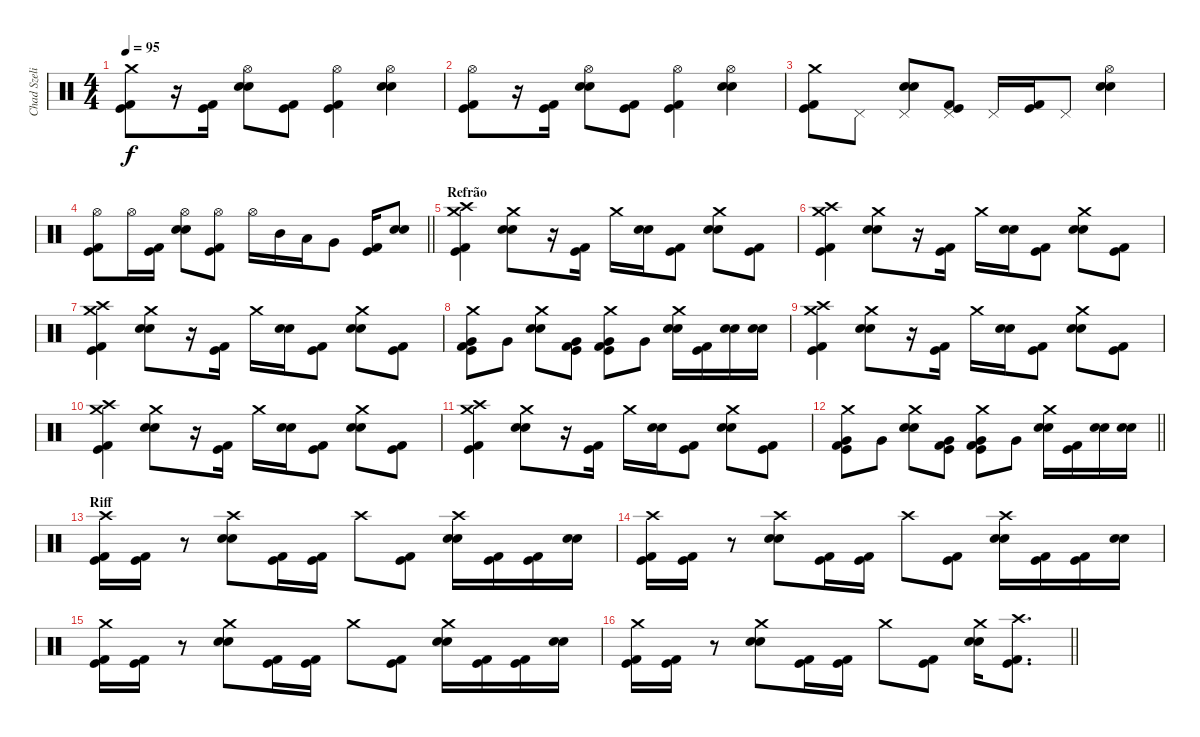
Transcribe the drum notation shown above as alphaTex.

\track ("Chad Szeliga" "Chad Szeli") {instrument percussion}
\staff {score}
\articulation defaults
\ts (4 4)
\tempo 95
\clef neutral
\ks c
("Crash medium (hit)" "Kick (hit) 2" "Kick (hit)").8{dy f} r.16 ("Kick (hit) 2" "Kick (hit)").16{beam Down} ("Snare (hit) 2" "Snare (hit) 2" "Hi-Hat (open)").8 ("Kick (hit) 2" "Kick (hit)").8 ("Kick (hit) 2" "Kick (hit)" "Hi-Hat (open)").4 ("Snare (hit) 2" "Snare (hit) 2" "Hi-Hat (open)").4 |
("Kick (hit) 2" "Kick (hit)" "Hi-Hat (open)").8 r.16 ("Kick (hit) 2" "Kick (hit)").16{beam Down} ("Snare (hit) 2" "Snare (hit) 2" "Hi-Hat (open)").8 ("Kick (hit) 2" "Kick (hit)").8 ("Kick (hit) 2" "Kick (hit)" "Hi-Hat (open)").4 ("Snare (hit) 2" "Snare (hit) 2" "Hi-Hat (open)").4 |
("Crash medium (hit)" "Kick (hit) 2" "Kick (hit)").8 "Pedal Hi-Hat (hit)".8 ("Snare (hit) 2" "Snare (hit) 2" "Pedal Hi-Hat (hit)").8 ("Kick (hit) 2" "Kick (hit)" "Pedal Hi-Hat (hit)").8 "Pedal Hi-Hat (hit)".16 ("Kick (hit) 2" "Kick (hit)").16 "Pedal Hi-Hat (hit)".8 ("Snare (hit) 2" "Snare (hit) 2" "Hi-Hat (open)").4 |
\barLineRight lightlight
("Kick (hit) 2" "Kick (hit)" "Hi-Hat (open)").8 "Hi-Hat (open)".16 ("Kick (hit) 2" "Kick (hit)").16 ("Snare (hit) 2" "Snare (hit) 2" "Hi-Hat (open)").8 ("Kick (hit) 2" "Kick (hit)" "Hi-Hat (open)").8 "Hi-Hat (open)".16 "Mid Tom (hit)".16 "Low Tom (hit)".16 "Very Low Tom (hit)".8 ("Kick (hit) 2" "Kick (hit)").16 ("Snare (hit) 2" "Snare (hit) 2").8 |
\section ("" "Refrão")
("Crash high (hit)" "Kick (hit) 2" "Kick (hit)" "Crash medium (hit)").4 ("Crash medium (hit)" "Snare (hit) 2" "Snare (hit) 2").8 r.16 ("Kick (hit) 2" "Kick (hit)").16{beam Down} "Crash medium (hit)".16 ("Snare (hit) 2" "Snare (hit) 2").16 ("Kick (hit) 2" "Kick (hit)").8 ("Crash medium (hit)" "Snare (hit) 2" "Snare (hit) 2").8 ("Kick (hit) 2" "Kick (hit)").8 |
("Crash high (hit)" "Kick (hit) 2" "Kick (hit)" "Crash medium (hit)").4 ("Crash medium (hit)" "Snare (hit) 2" "Snare (hit) 2").8 r.16 ("Kick (hit) 2" "Kick (hit)").16{beam Down} "Crash medium (hit)".16 ("Snare (hit) 2" "Snare (hit) 2").16 ("Kick (hit) 2" "Kick (hit)").8 ("Crash medium (hit)" "Snare (hit) 2" "Snare (hit) 2").8 ("Kick (hit) 2" "Kick (hit)").8 |
("Crash high (hit)" "Kick (hit) 2" "Kick (hit)" "Crash medium (hit)").4 ("Crash medium (hit)" "Snare (hit) 2" "Snare (hit) 2").8 r.16 ("Kick (hit) 2" "Kick (hit)").16{beam Down} "Crash medium (hit)".16 ("Snare (hit) 2" "Snare (hit) 2").16 ("Kick (hit) 2" "Kick (hit)").8 ("Crash medium (hit)" "Snare (hit) 2" "Snare (hit) 2").8 ("Kick (hit) 2" "Kick (hit)").8 |
("Crash medium (hit)" "Kick (hit) 2" "Kick (hit)" "Very Low Tom (hit)").8 "Very Low Tom (hit)".8 ("Crash medium (hit)" "Snare (hit) 2" "Snare (hit) 2").8 ("Kick (hit) 2" "Kick (hit)" "Very Low Tom (hit)").8 ("Crash medium (hit)" "Kick (hit) 2" "Kick (hit)" "Very Low Tom (hit)").8 "Very Low Tom (hit)".8 ("Crash medium (hit)" "Snare (hit) 2" "Snare (hit) 2").16 ("Kick (hit) 2" "Kick (hit)").16 ("Snare (hit) 2" "Snare (hit) 2").16 ("Snare (hit) 2" "Snare (hit) 2").16 |
("Crash high (hit)" "Kick (hit) 2" "Kick (hit)" "Crash medium (hit)").4 ("Crash medium (hit)" "Snare (hit) 2" "Snare (hit) 2").8 r.16 ("Kick (hit) 2" "Kick (hit)").16{beam Down} "Crash medium (hit)".16 ("Snare (hit) 2" "Snare (hit) 2").16 ("Kick (hit) 2" "Kick (hit)").8 ("Crash medium (hit)" "Snare (hit) 2" "Snare (hit) 2").8 ("Kick (hit) 2" "Kick (hit)").8 |
("Crash high (hit)" "Kick (hit) 2" "Kick (hit)" "Crash medium (hit)").4 ("Crash medium (hit)" "Snare (hit) 2" "Snare (hit) 2").8 r.16 ("Kick (hit) 2" "Kick (hit)").16{beam Down} "Crash medium (hit)".16 ("Snare (hit) 2" "Snare (hit) 2").16 ("Kick (hit) 2" "Kick (hit)").8 ("Crash medium (hit)" "Snare (hit) 2" "Snare (hit) 2").8 ("Kick (hit) 2" "Kick (hit)").8 |
("Crash high (hit)" "Kick (hit) 2" "Kick (hit)" "Crash medium (hit)").4 ("Crash medium (hit)" "Snare (hit) 2" "Snare (hit) 2").8 r.16 ("Kick (hit) 2" "Kick (hit)").16{beam Down} "Crash medium (hit)".16 ("Snare (hit) 2" "Snare (hit) 2").16 ("Kick (hit) 2" "Kick (hit)").8 ("Crash medium (hit)" "Snare (hit) 2" "Snare (hit) 2").8 ("Kick (hit) 2" "Kick (hit)").8 |
\barLineRight lightlight
("Crash medium (hit)" "Kick (hit) 2" "Kick (hit)" "Very Low Tom (hit)").8 "Very Low Tom (hit)".8 ("Crash medium (hit)" "Snare (hit) 2" "Snare (hit) 2").8 ("Kick (hit) 2" "Kick (hit)" "Very Low Tom (hit)").8 ("Crash medium (hit)" "Kick (hit) 2" "Kick (hit)" "Very Low Tom (hit)").8 "Very Low Tom (hit)".8 ("Crash medium (hit)" "Snare (hit) 2" "Snare (hit) 2").16 ("Kick (hit) 2" "Kick (hit)").16 ("Snare (hit) 2" "Snare (hit) 2").16 ("Snare (hit) 2" "Snare (hit) 2").16 |
\section ("" "Riff")
("Crash high (hit)" "Kick (hit) 2" "Kick (hit)").16 ("Kick (hit) 2" "Kick (hit)").16 r.8 ("Crash high (hit)" "Snare (hit) 2" "Snare (hit) 2").8 ("Kick (hit) 2" "Kick (hit)").16 ("Kick (hit) 2" "Kick (hit)").16 "Crash high (hit)".8 ("Kick (hit) 2" "Kick (hit)").8 ("Crash high (hit)" "Snare (hit) 2" "Snare (hit) 2").16 ("Kick (hit) 2" "Kick (hit)").16 ("Kick (hit) 2" "Kick (hit)").16 ("Snare (hit) 2" "Snare (hit) 2").16 |
("Crash high (hit)" "Kick (hit) 2" "Kick (hit)").16 ("Kick (hit) 2" "Kick (hit)").16 r.8 ("Crash high (hit)" "Snare (hit) 2" "Snare (hit) 2").8 ("Kick (hit) 2" "Kick (hit)").16 ("Kick (hit) 2" "Kick (hit)").16 "Crash high (hit)".8 ("Kick (hit) 2" "Kick (hit)").8 ("Crash high (hit)" "Snare (hit) 2" "Snare (hit) 2").16 ("Kick (hit) 2" "Kick (hit)").16 ("Kick (hit) 2" "Kick (hit)").16 ("Snare (hit) 2" "Snare (hit) 2").16 |
("Crash medium (hit)" "Kick (hit) 2" "Kick (hit)").16 ("Kick (hit) 2" "Kick (hit)").16 r.8 ("Crash medium (hit)" "Snare (hit) 2" "Snare (hit) 2").8 ("Kick (hit) 2" "Kick (hit)").16 ("Kick (hit) 2" "Kick (hit)").16 "Crash medium (hit)".8 ("Kick (hit) 2" "Kick (hit)").8 ("Crash medium (hit)" "Snare (hit) 2" "Snare (hit) 2").16 ("Kick (hit) 2" "Kick (hit)").16 ("Kick (hit) 2" "Kick (hit)").16 ("Snare (hit) 2" "Snare (hit) 2").16 |
\barLineRight lightlight
("Crash medium (hit)" "Kick (hit) 2" "Kick (hit)").16 ("Kick (hit) 2" "Kick (hit)").16 r.8 ("Crash medium (hit)" "Snare (hit) 2" "Snare (hit) 2").8 ("Kick (hit) 2" "Kick (hit)").16 ("Kick (hit) 2" "Kick (hit)").16 "Crash medium (hit)".8 ("Kick (hit) 2" "Kick (hit)").8 ("Crash medium (hit)" "Snare (hit) 2" "Snare (hit) 2").16 ("Crash high (hit)" "Kick (hit) 2" "Kick (hit)").8{d}
